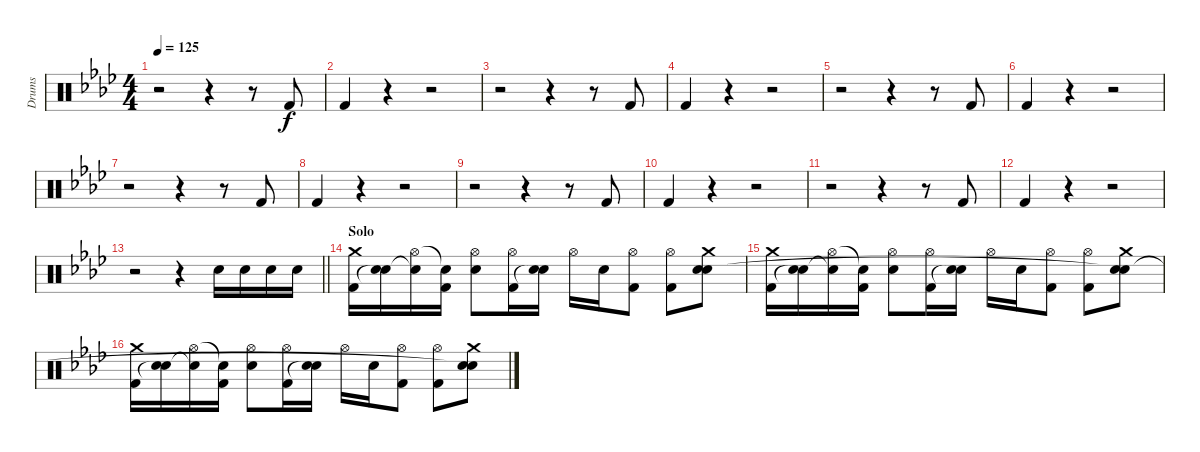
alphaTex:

\track ("Drums" "Drums") {instrument percussion}
\staff {score}
\articulation defaults
\ts (4 4)
\tempo 125
\clef neutral
\ks ab
r.2{dy f} r.4 r.8 "Kick (hit) 2".8 |
"Kick (hit) 2".4 r.4 r.2 |
r.2 r.4 r.8 "Kick (hit) 2".8 |
"Kick (hit) 2".4 r.4 r.2 |
r.2 r.4 r.8 "Kick (hit) 2".8 |
"Kick (hit) 2".4 r.4 r.2 |
r.2 r.4 r.8 "Kick (hit) 2".8 |
"Kick (hit) 2".4 r.4 r.2 |
r.2 r.4 r.8 "Kick (hit) 2".8 |
"Kick (hit) 2".4 r.4 r.2 |
r.2 r.4 r.8 "Kick (hit) 2".8 |
"Kick (hit) 2".4 r.4 r.2 |
\barLineRight lightlight
r.2 r.4 "Electric Snare (hit)".16 "Electric Snare (hit)".16 "Electric Snare (hit)".16 "Electric Snare (hit)".16 |
\section ("" "Solo")
("Crash medium (hit)" "Kick (hit) 2").16 ("Electric Snare (hit)" "Snare (hit)"{t}).16 ("Hi-Hat (open)" "Snare (hit)"{t}).16 ("Snare (hit)"{t} "Kick (hit) 2").16 ("Hi-Hat (open)" "Electric Snare (hit)").8 ("Hi-Hat (open)" "Kick (hit) 2").16 ("Electric Snare (hit)" "Snare (hit)"{t}).16 "Hi-Hat (open)".16 "Electric Snare (hit)".16 ("Hi-Hat (open)" "Kick (hit) 2").8 ("Hi-Hat (open)" "Kick (hit) 2").8 ("Crash medium (hit)" "Electric Snare (hit)" "Snare (hit)").8 |
("Crash medium (hit)" "Kick (hit) 2").16 ("Electric Snare (hit)" "Snare (hit)"{t}).16 ("Hi-Hat (open)" "Snare (hit)"{t}).16 ("Snare (hit)"{t} "Kick (hit) 2").16 ("Hi-Hat (open)" "Electric Snare (hit)").8 ("Hi-Hat (open)" "Kick (hit) 2").16 ("Electric Snare (hit)" "Snare (hit)"{t}).16 "Hi-Hat (open)".16 "Electric Snare (hit)".16 ("Hi-Hat (open)" "Kick (hit) 2").8 ("Hi-Hat (open)" "Kick (hit) 2").8 ("Crash medium (hit)" "Electric Snare (hit)" "Snare (hit)"{t}).8 |
("Crash medium (hit)" "Kick (hit) 2").16 ("Electric Snare (hit)" "Snare (hit)"{t}).16 ("Hi-Hat (open)" "Snare (hit)"{t}).16 ("Snare (hit)"{t} "Kick (hit) 2").16 ("Hi-Hat (open)" "Electric Snare (hit)").8 ("Hi-Hat (open)" "Kick (hit) 2").16 ("Electric Snare (hit)" "Snare (hit)"{t}).16 "Hi-Hat (open)".16 "Electric Snare (hit)".16 ("Hi-Hat (open)" "Kick (hit) 2").8 ("Hi-Hat (open)" "Kick (hit) 2").8 ("Crash medium (hit)" "Electric Snare (hit)" "Snare (hit)"{t}).8
